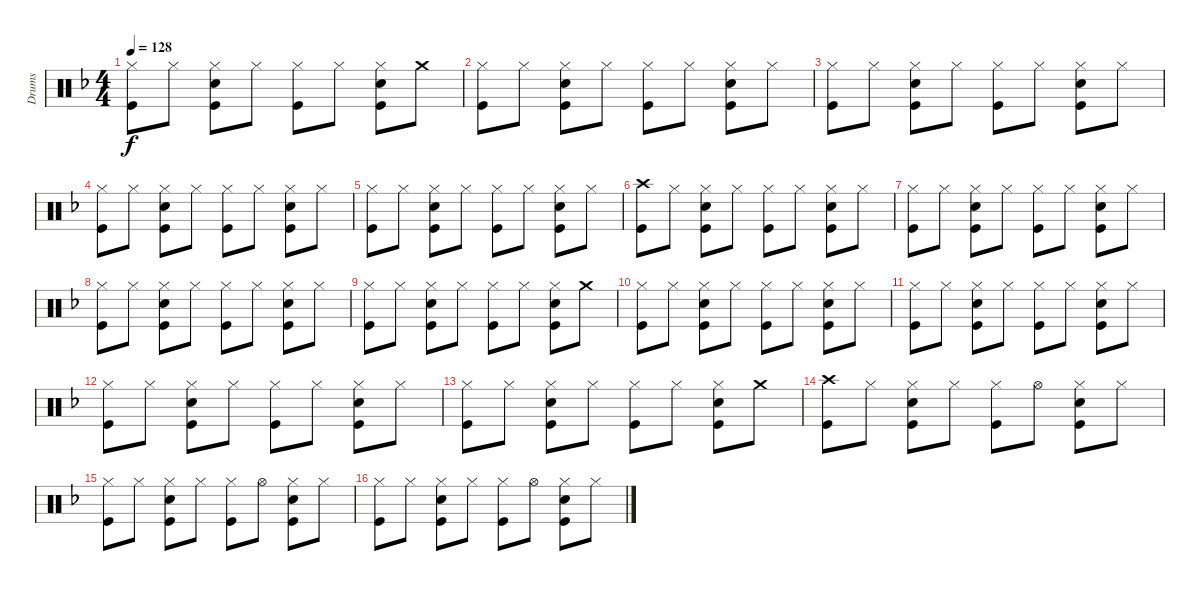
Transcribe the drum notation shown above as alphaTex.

\track ("Drums" "Drums") {instrument percussion}
\staff {score}
\articulation defaults
\ts (4 4)
\tempo 128
\clef neutral
\ks f
("Hi-Hat (closed)" "Kick (hit)").8{dy f} "Hi-Hat (closed)".8 ("Hi-Hat (closed)" "Snare (hit) 2" "Kick (hit)").8 "Hi-Hat (closed)".8 ("Hi-Hat (closed)" "Kick (hit)").8 "Hi-Hat (closed)".8 ("Hi-Hat (closed)" "Snare (hit) 2" "Kick (hit)").8 "Crash medium (hit)".8 |
("Hi-Hat (closed)" "Kick (hit)").8 "Hi-Hat (closed)".8 ("Hi-Hat (closed)" "Snare (hit) 2" "Kick (hit)").8 "Hi-Hat (closed)".8 ("Hi-Hat (closed)" "Kick (hit)").8 "Hi-Hat (closed)".8 ("Hi-Hat (closed)" "Snare (hit) 2" "Kick (hit)").8 "Hi-Hat (closed)".8 |
("Hi-Hat (closed)" "Kick (hit)").8 "Hi-Hat (closed)".8 ("Hi-Hat (closed)" "Snare (hit) 2" "Kick (hit)").8 "Hi-Hat (closed)".8 ("Hi-Hat (closed)" "Kick (hit)").8 "Hi-Hat (closed)".8 ("Hi-Hat (closed)" "Snare (hit) 2" "Kick (hit)").8 "Hi-Hat (closed)".8 |
("Hi-Hat (closed)" "Kick (hit)").8 "Hi-Hat (closed)".8 ("Hi-Hat (closed)" "Snare (hit) 2" "Kick (hit)").8 "Hi-Hat (closed)".8 ("Hi-Hat (closed)" "Kick (hit)").8 "Hi-Hat (closed)".8 ("Hi-Hat (closed)" "Snare (hit) 2" "Kick (hit)").8 "Hi-Hat (closed)".8 |
("Hi-Hat (closed)" "Kick (hit)").8 "Hi-Hat (closed)".8 ("Hi-Hat (closed)" "Snare (hit) 2" "Kick (hit)").8 "Hi-Hat (closed)".8 ("Hi-Hat (closed)" "Kick (hit)").8 "Hi-Hat (closed)".8 ("Hi-Hat (closed)" "Snare (hit) 2" "Kick (hit)").8 "Hi-Hat (closed)".8 |
("Crash high (hit)" "Kick (hit)").8 "Hi-Hat (closed)".8 ("Hi-Hat (closed)" "Snare (hit) 2" "Kick (hit)").8 "Hi-Hat (closed)".8 ("Hi-Hat (closed)" "Kick (hit)").8 "Hi-Hat (closed)".8 ("Hi-Hat (closed)" "Snare (hit) 2" "Kick (hit)").8 "Hi-Hat (closed)".8 |
("Hi-Hat (closed)" "Kick (hit)").8 "Hi-Hat (closed)".8 ("Hi-Hat (closed)" "Snare (hit) 2" "Kick (hit)").8 "Hi-Hat (closed)".8 ("Hi-Hat (closed)" "Kick (hit)").8 "Hi-Hat (closed)".8 ("Hi-Hat (closed)" "Snare (hit) 2" "Kick (hit)").8 "Hi-Hat (closed)".8 |
("Hi-Hat (closed)" "Kick (hit)").8 "Hi-Hat (closed)".8 ("Hi-Hat (closed)" "Snare (hit) 2" "Kick (hit)").8 "Hi-Hat (closed)".8 ("Hi-Hat (closed)" "Kick (hit)").8 "Hi-Hat (closed)".8 ("Hi-Hat (closed)" "Snare (hit) 2" "Kick (hit)").8 "Hi-Hat (closed)".8 |
("Hi-Hat (closed)" "Kick (hit)").8 "Hi-Hat (closed)".8 ("Hi-Hat (closed)" "Snare (hit) 2" "Kick (hit)").8 "Hi-Hat (closed)".8 ("Hi-Hat (closed)" "Kick (hit)").8 "Hi-Hat (closed)".8 ("Hi-Hat (closed)" "Snare (hit) 2" "Kick (hit)").8 "Crash medium (hit)".8 |
("Hi-Hat (closed)" "Kick (hit)").8 "Hi-Hat (closed)".8 ("Hi-Hat (closed)" "Snare (hit) 2" "Kick (hit)").8 "Hi-Hat (closed)".8 ("Hi-Hat (closed)" "Kick (hit)").8 "Hi-Hat (closed)".8 ("Hi-Hat (closed)" "Snare (hit) 2" "Kick (hit)").8 "Hi-Hat (closed)".8 |
("Hi-Hat (closed)" "Kick (hit)").8 "Hi-Hat (closed)".8 ("Hi-Hat (closed)" "Snare (hit) 2" "Kick (hit)").8 "Hi-Hat (closed)".8 ("Hi-Hat (closed)" "Kick (hit)").8 "Hi-Hat (closed)".8 ("Hi-Hat (closed)" "Snare (hit) 2" "Kick (hit)").8 "Hi-Hat (closed)".8 |
("Hi-Hat (closed)" "Kick (hit)").8 "Hi-Hat (closed)".8 ("Hi-Hat (closed)" "Snare (hit) 2" "Kick (hit)").8 "Hi-Hat (closed)".8 ("Hi-Hat (closed)" "Kick (hit)").8 "Hi-Hat (closed)".8 ("Hi-Hat (closed)" "Snare (hit) 2" "Kick (hit)").8 "Hi-Hat (closed)".8 |
("Hi-Hat (closed)" "Kick (hit)").8 "Hi-Hat (closed)".8 ("Hi-Hat (closed)" "Snare (hit) 2" "Kick (hit)").8 "Hi-Hat (closed)".8 ("Hi-Hat (closed)" "Kick (hit)").8 "Hi-Hat (closed)".8 ("Hi-Hat (closed)" "Snare (hit) 2" "Kick (hit)").8 "Crash medium (hit)".8 |
("Crash high (hit)" "Kick (hit)").8 "Hi-Hat (closed)".8 ("Hi-Hat (closed)" "Snare (hit) 2" "Kick (hit)").8 "Hi-Hat (closed)".8 ("Hi-Hat (closed)" "Kick (hit)").8 "Hi-Hat (open)".8 ("Hi-Hat (closed)" "Snare (hit) 2" "Kick (hit)").8 "Hi-Hat (closed)".8 |
("Hi-Hat (closed)" "Kick (hit)").8 "Hi-Hat (closed)".8 ("Hi-Hat (closed)" "Snare (hit) 2" "Kick (hit)").8 "Hi-Hat (closed)".8 ("Hi-Hat (closed)" "Kick (hit)").8 "Hi-Hat (open)".8 ("Hi-Hat (closed)" "Snare (hit) 2" "Kick (hit)").8 "Hi-Hat (closed)".8 |
("Hi-Hat (closed)" "Kick (hit)").8 "Hi-Hat (closed)".8 ("Hi-Hat (closed)" "Snare (hit) 2" "Kick (hit)").8 "Hi-Hat (closed)".8 ("Hi-Hat (closed)" "Kick (hit)").8 "Hi-Hat (open)".8 ("Hi-Hat (closed)" "Snare (hit) 2" "Kick (hit)").8 "Hi-Hat (closed)".8
